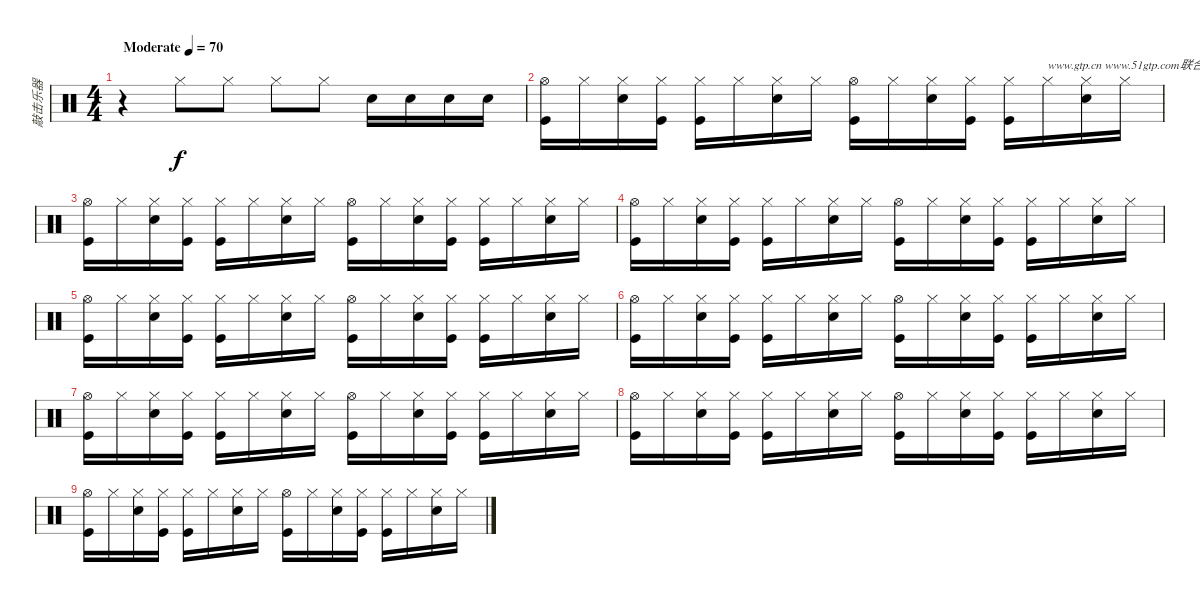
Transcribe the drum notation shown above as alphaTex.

\track ("敲击乐器" "敲击乐器") {instrument percussion}
\staff {score}
\articulation defaults
\ts (4 4)
\tempo (70 "Moderate")
\clef neutral
\ks c
r.4{dy f} "Hi-Hat (closed)".8 "Hi-Hat (closed)".8 "Hi-Hat (closed)".8 "Hi-Hat (closed)".8 "Snare (hit) 2".16 "Snare (hit) 2".16 "Snare (hit) 2".16 "Snare (hit) 2".16 |
("Hi-Hat (open)" "Kick (hit)").16 "Hi-Hat (closed)".16 ("Hi-Hat (closed)" "Snare (hit) 2").16 ("Hi-Hat (closed)" "Kick (hit)").16 ("Hi-Hat (closed)" "Kick (hit)").16 "Hi-Hat (closed)".16 ("Hi-Hat (closed)" "Snare (hit) 2").16 "Hi-Hat (closed)".16 ("Hi-Hat (open)" "Kick (hit)").16 "Hi-Hat (closed)".16 ("Hi-Hat (closed)" "Snare (hit) 2").16 ("Hi-Hat (closed)" "Kick (hit)").16 ("Hi-Hat (closed)" "Kick (hit)").16 "Hi-Hat (closed)".16{txt "www.gtp.cn www.51gtp.com联合为您提供优秀的GTP!"} ("Hi-Hat (closed)" "Snare (hit) 2").16 "Hi-Hat (closed)".16 |
("Hi-Hat (open)" "Kick (hit)").16 "Hi-Hat (closed)".16 ("Hi-Hat (closed)" "Snare (hit) 2").16 ("Hi-Hat (closed)" "Kick (hit)").16 ("Hi-Hat (closed)" "Kick (hit)").16 "Hi-Hat (closed)".16 ("Hi-Hat (closed)" "Snare (hit) 2").16 "Hi-Hat (closed)".16 ("Hi-Hat (open)" "Kick (hit)").16 "Hi-Hat (closed)".16 ("Hi-Hat (closed)" "Snare (hit) 2").16 ("Hi-Hat (closed)" "Kick (hit)").16 ("Hi-Hat (closed)" "Kick (hit)").16 "Hi-Hat (closed)".16 ("Hi-Hat (closed)" "Snare (hit) 2").16 "Hi-Hat (closed)".16 |
("Hi-Hat (open)" "Kick (hit)").16 "Hi-Hat (closed)".16 ("Hi-Hat (closed)" "Snare (hit) 2").16 ("Hi-Hat (closed)" "Kick (hit)").16 ("Hi-Hat (closed)" "Kick (hit)").16 "Hi-Hat (closed)".16 ("Hi-Hat (closed)" "Snare (hit) 2").16 "Hi-Hat (closed)".16 ("Hi-Hat (open)" "Kick (hit)").16 "Hi-Hat (closed)".16 ("Hi-Hat (closed)" "Snare (hit) 2").16 ("Hi-Hat (closed)" "Kick (hit)").16 ("Hi-Hat (closed)" "Kick (hit)").16 "Hi-Hat (closed)".16 ("Hi-Hat (closed)" "Snare (hit) 2").16 "Hi-Hat (closed)".16 |
("Hi-Hat (open)" "Kick (hit)").16 "Hi-Hat (closed)".16 ("Hi-Hat (closed)" "Snare (hit) 2").16 ("Hi-Hat (closed)" "Kick (hit)").16 ("Hi-Hat (closed)" "Kick (hit)").16 "Hi-Hat (closed)".16 ("Hi-Hat (closed)" "Snare (hit) 2").16 "Hi-Hat (closed)".16 ("Hi-Hat (open)" "Kick (hit)").16 "Hi-Hat (closed)".16 ("Hi-Hat (closed)" "Snare (hit) 2").16 ("Hi-Hat (closed)" "Kick (hit)").16 ("Hi-Hat (closed)" "Kick (hit)").16 "Hi-Hat (closed)".16 ("Hi-Hat (closed)" "Snare (hit) 2").16 "Hi-Hat (closed)".16 |
("Hi-Hat (open)" "Kick (hit)").16 "Hi-Hat (closed)".16 ("Hi-Hat (closed)" "Snare (hit) 2").16 ("Hi-Hat (closed)" "Kick (hit)").16 ("Hi-Hat (closed)" "Kick (hit)").16 "Hi-Hat (closed)".16 ("Hi-Hat (closed)" "Snare (hit) 2").16 "Hi-Hat (closed)".16 ("Hi-Hat (open)" "Kick (hit)").16 "Hi-Hat (closed)".16 ("Hi-Hat (closed)" "Snare (hit) 2").16 ("Hi-Hat (closed)" "Kick (hit)").16 ("Hi-Hat (closed)" "Kick (hit)").16 "Hi-Hat (closed)".16 ("Hi-Hat (closed)" "Snare (hit) 2").16 "Hi-Hat (closed)".16 |
("Hi-Hat (open)" "Kick (hit)").16 "Hi-Hat (closed)".16 ("Hi-Hat (closed)" "Snare (hit) 2").16 ("Hi-Hat (closed)" "Kick (hit)").16 ("Hi-Hat (closed)" "Kick (hit)").16 "Hi-Hat (closed)".16 ("Hi-Hat (closed)" "Snare (hit) 2").16 "Hi-Hat (closed)".16 ("Hi-Hat (open)" "Kick (hit)").16 "Hi-Hat (closed)".16 ("Hi-Hat (closed)" "Snare (hit) 2").16 ("Hi-Hat (closed)" "Kick (hit)").16 ("Hi-Hat (closed)" "Kick (hit)").16 "Hi-Hat (closed)".16 ("Hi-Hat (closed)" "Snare (hit) 2").16 "Hi-Hat (closed)".16 |
("Hi-Hat (open)" "Kick (hit)").16 "Hi-Hat (closed)".16 ("Hi-Hat (closed)" "Snare (hit) 2").16 ("Hi-Hat (closed)" "Kick (hit)").16 ("Hi-Hat (closed)" "Kick (hit)").16 "Hi-Hat (closed)".16 ("Hi-Hat (closed)" "Snare (hit) 2").16 "Hi-Hat (closed)".16 ("Hi-Hat (open)" "Kick (hit)").16 "Hi-Hat (closed)".16 ("Hi-Hat (closed)" "Snare (hit) 2").16 ("Hi-Hat (closed)" "Kick (hit)").16 ("Hi-Hat (closed)" "Kick (hit)").16 "Hi-Hat (closed)".16 ("Hi-Hat (closed)" "Snare (hit) 2").16 "Hi-Hat (closed)".16 |
("Hi-Hat (open)" "Kick (hit)").16 "Hi-Hat (closed)".16 ("Hi-Hat (closed)" "Snare (hit) 2").16 ("Hi-Hat (closed)" "Kick (hit)").16 ("Hi-Hat (closed)" "Kick (hit)").16 "Hi-Hat (closed)".16 ("Hi-Hat (closed)" "Snare (hit) 2").16 "Hi-Hat (closed)".16 ("Hi-Hat (open)" "Kick (hit)").16 "Hi-Hat (closed)".16 ("Hi-Hat (closed)" "Snare (hit) 2").16 ("Hi-Hat (closed)" "Kick (hit)").16 ("Hi-Hat (closed)" "Kick (hit)").16 "Hi-Hat (closed)".16 ("Hi-Hat (closed)" "Snare (hit) 2").16 "Hi-Hat (closed)".16
